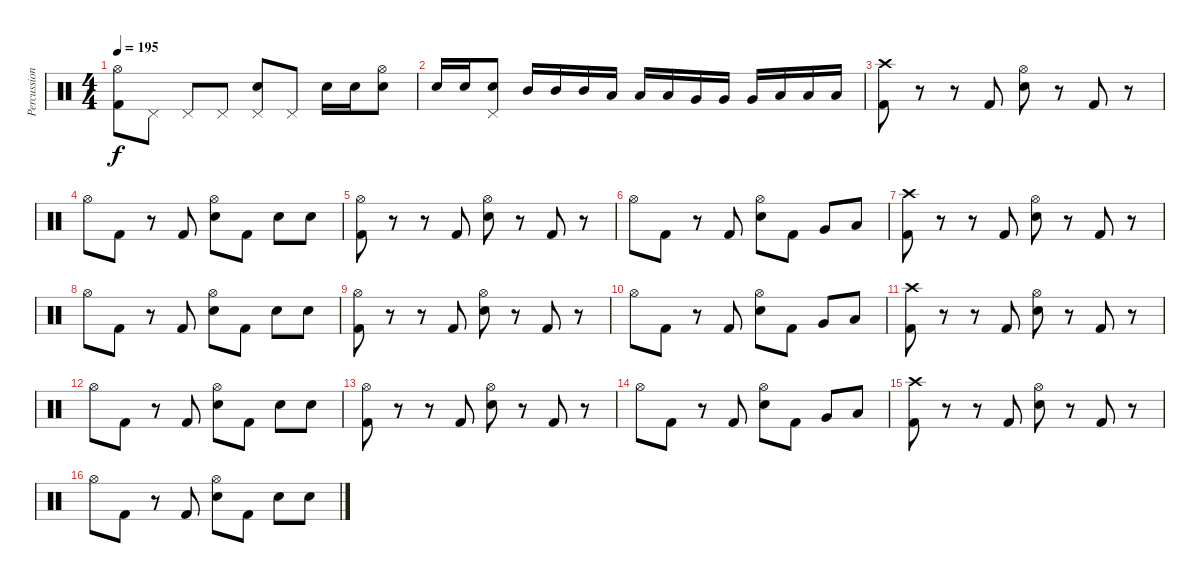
\track ("Percussion" "Percussion") {instrument percussion}
\staff {score}
\articulation defaults
\ts (4 4)
\tempo 195
\clef neutral
\ks c
("Hi-Hat (open)" "Kick (hit) 2").8{dy f} "Pedal Hi-Hat (hit)".8 "Pedal Hi-Hat (hit)".8 "Pedal Hi-Hat (hit)".8 ("Pedal Hi-Hat (hit)" "Electric Snare (hit)").8 "Pedal Hi-Hat (hit)".8 "Electric Snare (hit)".16 "Electric Snare (hit)".16 ("Hi-Hat (open)" "Electric Snare (hit)").8 |
"Electric Snare (hit)".16 "Electric Snare (hit)".16 ("Pedal Hi-Hat (hit)" "Electric Snare (hit)").8 "Mid Tom (hit)".16 "Mid Tom (hit)".16 "Mid Tom (hit)".16 "Low Tom (hit)".16 "Low Tom (hit)".16 "Low Tom (hit)".16 "Very Low Tom (hit)".16 "Very Low Tom (hit)".16 "Very Low Tom (hit)".16 "Low Floor Tom (hit)".16 "Low Floor Tom (hit)".16 "Low Floor Tom (hit)".16 |
("Crash high (hit)" "Kick (hit) 2").8 r.8 r.8 "Kick (hit) 2".8 ("Hi-Hat (open)" "Electric Snare (hit)").8 r.8 "Kick (hit) 2".8 r.8 |
"Hi-Hat (open)".8 "Kick (hit) 2".8 r.8 "Kick (hit) 2".8 ("Hi-Hat (open)" "Electric Snare (hit)").8 "Kick (hit) 2".8 "Electric Snare (hit)".8 "Electric Snare (hit)".8 |
("Hi-Hat (open)" "Kick (hit) 2").8 r.8 r.8 "Kick (hit) 2".8 ("Hi-Hat (open)" "Electric Snare (hit)").8 r.8 "Kick (hit) 2".8 r.8 |
"Hi-Hat (open)".8 "Kick (hit) 2".8 r.8 "Kick (hit) 2".8 ("Hi-Hat (open)" "Electric Snare (hit)").8 "Kick (hit) 2".8 "Very Low Tom (hit)".8 "Low Floor Tom (hit)".8 |
("Crash high (hit)" "Kick (hit) 2").8 r.8 r.8 "Kick (hit) 2".8 ("Hi-Hat (open)" "Electric Snare (hit)").8 r.8 "Kick (hit) 2".8 r.8 |
"Hi-Hat (open)".8 "Kick (hit) 2".8 r.8 "Kick (hit) 2".8 ("Hi-Hat (open)" "Electric Snare (hit)").8 "Kick (hit) 2".8 "Electric Snare (hit)".8 "Electric Snare (hit)".8 |
("Hi-Hat (open)" "Kick (hit) 2").8 r.8 r.8 "Kick (hit) 2".8 ("Hi-Hat (open)" "Electric Snare (hit)").8 r.8 "Kick (hit) 2".8 r.8 |
"Hi-Hat (open)".8 "Kick (hit) 2".8 r.8 "Kick (hit) 2".8 ("Hi-Hat (open)" "Electric Snare (hit)").8 "Kick (hit) 2".8 "Very Low Tom (hit)".8 "Low Floor Tom (hit)".8 |
("Crash high (hit)" "Kick (hit) 2").8 r.8 r.8 "Kick (hit) 2".8 ("Hi-Hat (open)" "Electric Snare (hit)").8 r.8 "Kick (hit) 2".8 r.8 |
"Hi-Hat (open)".8 "Kick (hit) 2".8 r.8 "Kick (hit) 2".8 ("Hi-Hat (open)" "Electric Snare (hit)").8 "Kick (hit) 2".8 "Electric Snare (hit)".8 "Electric Snare (hit)".8 |
("Hi-Hat (open)" "Kick (hit) 2").8 r.8 r.8 "Kick (hit) 2".8 ("Hi-Hat (open)" "Electric Snare (hit)").8 r.8 "Kick (hit) 2".8 r.8 |
"Hi-Hat (open)".8 "Kick (hit) 2".8 r.8 "Kick (hit) 2".8 ("Hi-Hat (open)" "Electric Snare (hit)").8 "Kick (hit) 2".8 "Very Low Tom (hit)".8 "Low Floor Tom (hit)".8 |
("Crash high (hit)" "Kick (hit) 2").8 r.8 r.8 "Kick (hit) 2".8 ("Hi-Hat (open)" "Electric Snare (hit)").8 r.8 "Kick (hit) 2".8 r.8 |
"Hi-Hat (open)".8 "Kick (hit) 2".8 r.8 "Kick (hit) 2".8 ("Hi-Hat (open)" "Electric Snare (hit)").8 "Kick (hit) 2".8 "Electric Snare (hit)".8 "Electric Snare (hit)".8
